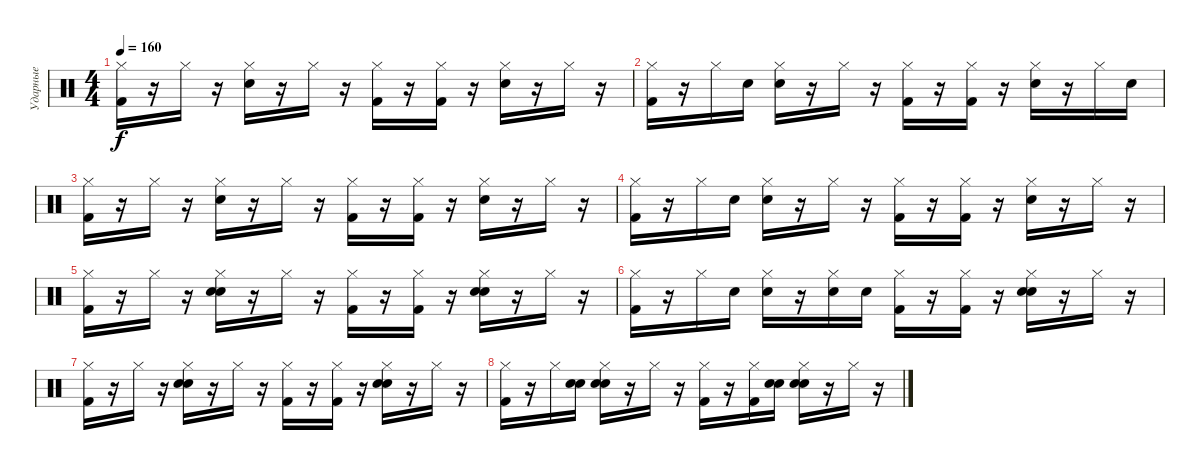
\track ("Ударные" "Ударные") {instrument percussion}
\staff {score}
\articulation defaults
\ts (4 4)
\tempo 160
\clef neutral
\ks c
("Hi-Hat (closed)" "Kick (hit) 2").16{dy f} r.16 "Hi-Hat (closed)".16 r.16 ("Hi-Hat (closed)" "Snare (hit) 2").16 r.16 "Hi-Hat (closed)".16 r.16 ("Hi-Hat (closed)" "Kick (hit) 2").16 r.16 ("Hi-Hat (closed)" "Kick (hit) 2").16 r.16 ("Hi-Hat (closed)" "Snare (hit) 2").16 r.16 "Hi-Hat (closed)".16 r.16 |
("Hi-Hat (closed)" "Kick (hit) 2").16 r.16 "Hi-Hat (closed)".16 "Snare (hit) 2".16 ("Hi-Hat (closed)" "Snare (hit) 2").16 r.16 "Hi-Hat (closed)".16 r.16 ("Hi-Hat (closed)" "Kick (hit) 2").16 r.16 ("Hi-Hat (closed)" "Kick (hit) 2").16 r.16 ("Hi-Hat (closed)" "Snare (hit) 2").16 r.16 "Hi-Hat (closed)".16 "Snare (hit) 2".16 |
("Hi-Hat (closed)" "Kick (hit) 2").16 r.16 "Hi-Hat (closed)".16 r.16 ("Hi-Hat (closed)" "Snare (hit) 2").16 r.16 "Hi-Hat (closed)".16 r.16 ("Hi-Hat (closed)" "Kick (hit) 2").16 r.16 ("Hi-Hat (closed)" "Kick (hit) 2").16 r.16 ("Hi-Hat (closed)" "Snare (hit) 2").16 r.16 "Hi-Hat (closed)".16 r.16 |
("Hi-Hat (closed)" "Kick (hit) 2").16 r.16 "Hi-Hat (closed)".16 "Snare (hit) 2".16 ("Hi-Hat (closed)" "Snare (hit) 2").16 r.16 "Hi-Hat (closed)".16 r.16 ("Hi-Hat (closed)" "Kick (hit) 2").16 r.16 ("Hi-Hat (closed)" "Kick (hit) 2").16 r.16 ("Hi-Hat (closed)" "Snare (hit) 2").16 r.16 "Hi-Hat (closed)".16 r.16 |
("Hi-Hat (closed)" "Kick (hit) 2").16 r.16 "Hi-Hat (closed)".16 r.16 ("Hi-Hat (closed)" "Snare (hit) 2" "Hand Clap (hit)").16 r.16 "Hi-Hat (closed)".16 r.16 ("Hi-Hat (closed)" "Kick (hit) 2").16 r.16 ("Hi-Hat (closed)" "Kick (hit) 2").16 r.16 ("Hi-Hat (closed)" "Snare (hit) 2" "Hand Clap (hit)").16 r.16 "Hi-Hat (closed)".16 r.16 |
("Hi-Hat (closed)" "Kick (hit) 2").16 r.16 "Hi-Hat (closed)".16 "Snare (hit) 2".16 ("Hi-Hat (closed)" "Snare (hit) 2").16 r.16 ("Hi-Hat (closed)" "Snare (hit) 2").16 "Snare (hit) 2".16 ("Hi-Hat (closed)" "Kick (hit) 2").16 r.16 ("Hi-Hat (closed)" "Kick (hit) 2").16 r.16 ("Hi-Hat (closed)" "Snare (hit) 2" "Hand Clap (hit)").16 r.16 "Hi-Hat (closed)".16 r.16 |
("Hi-Hat (closed)" "Kick (hit) 2").16 r.16 "Hi-Hat (closed)".16 r.16 ("Hi-Hat (closed)" "Snare (hit) 2" "Hand Clap (hit)").16 r.16 "Hi-Hat (closed)".16 r.16 ("Hi-Hat (closed)" "Kick (hit) 2").16 r.16 ("Hi-Hat (closed)" "Kick (hit) 2").16 r.16 ("Hi-Hat (closed)" "Snare (hit) 2" "Hand Clap (hit)").16 r.16 "Hi-Hat (closed)".16 r.16 |
("Hi-Hat (closed)" "Kick (hit) 2").16 r.16 "Hi-Hat (closed)".16 ("Snare (hit) 2" "Hand Clap (hit)").16 ("Hi-Hat (closed)" "Snare (hit) 2" "Hand Clap (hit)").16 r.16 "Hi-Hat (closed)".16 r.16 ("Hi-Hat (closed)" "Kick (hit) 2").16 r.16 ("Hi-Hat (closed)" "Kick (hit) 2").16 ("Snare (hit) 2" "Hand Clap (hit)").16 ("Hi-Hat (closed)" "Snare (hit) 2" "Hand Clap (hit)").16 r.16 "Hi-Hat (closed)".16 r.16
